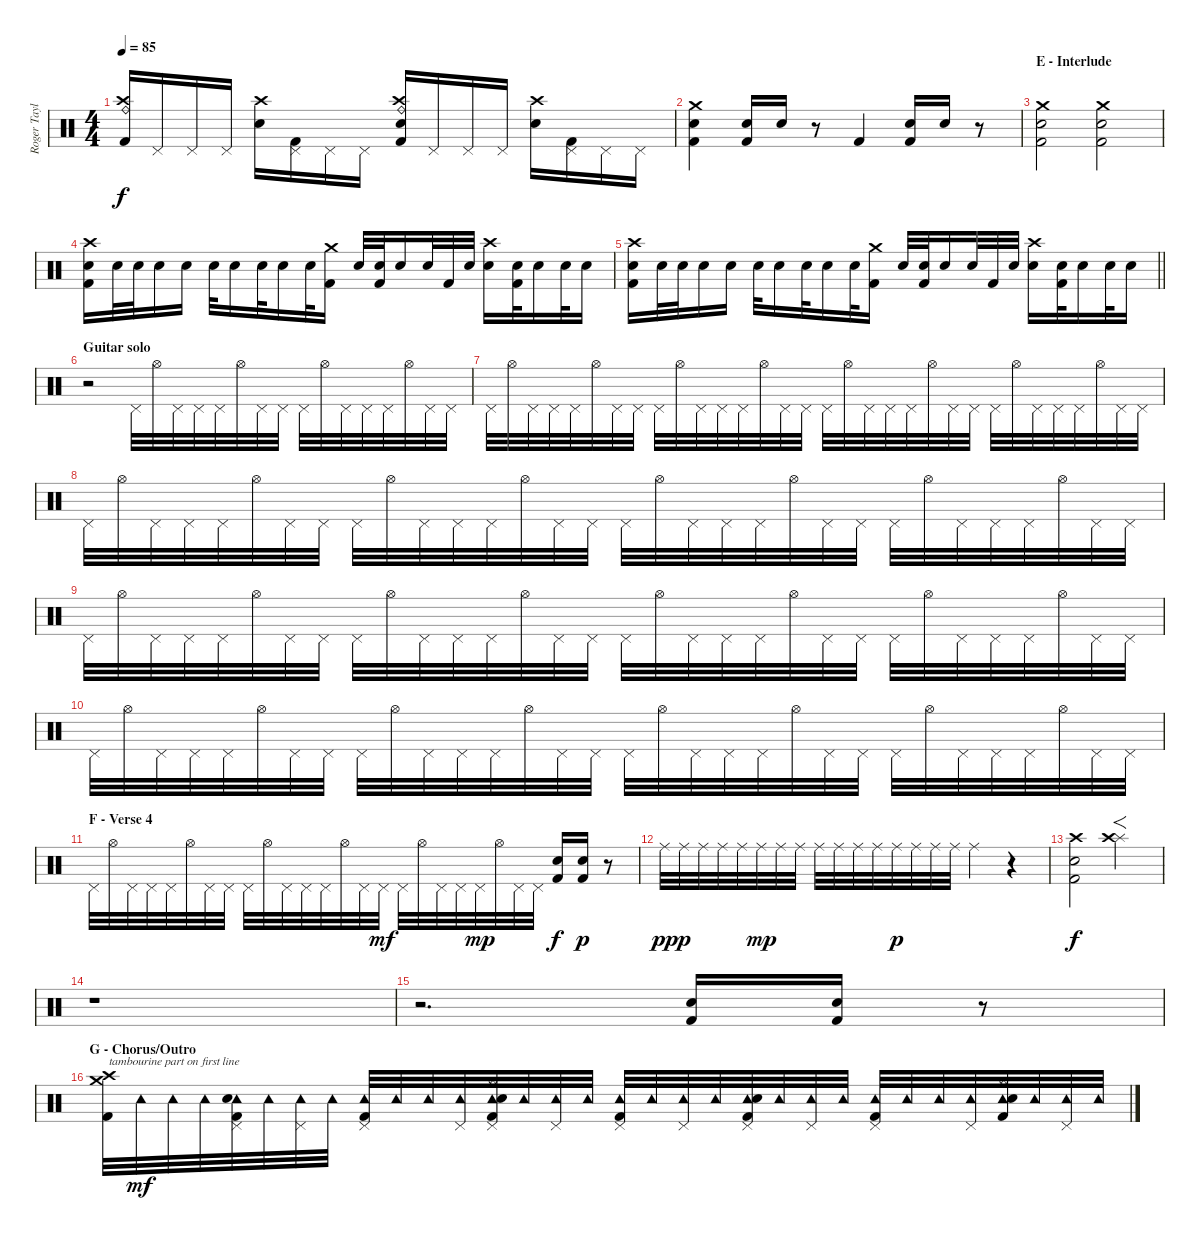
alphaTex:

\track ("Roger Taylor - Drums" "Roger Tayl") {instrument percussion}
\staff {score}
\articulation defaults
\ts (4 4)
\tempo 85
\clef neutral
\ks c
("Ride (bell)" "Crash high (hit)" "Kick (hit) 2").16{dy f} "Pedal Hi-Hat (hit)".16 "Pedal Hi-Hat (hit)".16 "Pedal Hi-Hat (hit)".16 ("Crash high (hit)" "Electric Snare (hit)").16 ("Pedal Hi-Hat (hit)" "Kick (hit) 2").16 "Pedal Hi-Hat (hit)".16 "Pedal Hi-Hat (hit)".16 ("Ride (bell)" "Crash high (hit)" "Electric Snare (hit)" "Kick (hit) 2").16 "Pedal Hi-Hat (hit)".16 "Pedal Hi-Hat (hit)".16 "Pedal Hi-Hat (hit)".16 ("Crash high (hit)" "Electric Snare (hit)").16 ("Pedal Hi-Hat (hit)" "Kick (hit) 2").16 "Pedal Hi-Hat (hit)".16 "Pedal Hi-Hat (hit)".16 |
("Crash medium (hit)" "Electric Snare (hit)" "Kick (hit) 2").4 ("Electric Snare (hit)" "Kick (hit) 2").16 "Electric Snare (hit)".16 r.8 "Kick (hit) 2".4 ("Electric Snare (hit)" "Kick (hit) 2").16 "Electric Snare (hit)".16 r.8 |
\section ("" "E - Interlude")
("Crash medium (hit)" "Electric Snare (hit)" "Kick (hit) 2").2 ("Crash medium (hit)" "Electric Snare (hit)" "Kick (hit) 2").2 |
("Crash high (hit)" "Electric Snare (hit)" "Kick (hit) 2").16 "Electric Snare (hit)".32 "Electric Snare (hit)".32 "Electric Snare (hit)".16 "Electric Snare (hit)".16 "Electric Snare (hit)".32 "Electric Snare (hit)".16 "Electric Snare (hit)".32 "Electric Snare (hit)".16 "Electric Snare (hit)".32 ("Crash medium (hit)" "Kick (hit) 2").16 "Electric Snare (hit)".32 ("Electric Snare (hit)" "Kick (hit) 2").32 "Electric Snare (hit)".16 "Electric Snare (hit)".32 "Kick (hit) 2".32 "Electric Snare (hit)".32 ("Crash high (hit)" "Electric Snare (hit)").16 ("Electric Snare (hit)" "Kick (hit) 2").32 "Electric Snare (hit)".16 "Electric Snare (hit)".32 "Electric Snare (hit)".16 |
\barLineRight lightlight
("Crash high (hit)" "Electric Snare (hit)" "Kick (hit) 2").16 "Electric Snare (hit)".32 "Electric Snare (hit)".32 "Electric Snare (hit)".16 "Electric Snare (hit)".16 "Electric Snare (hit)".32 "Electric Snare (hit)".16 "Electric Snare (hit)".32 "Electric Snare (hit)".16 "Electric Snare (hit)".32 ("Crash medium (hit)" "Kick (hit) 2").16 "Electric Snare (hit)".32 ("Electric Snare (hit)" "Kick (hit) 2").32 "Electric Snare (hit)".16 "Electric Snare (hit)".32 "Kick (hit) 2".32 "Electric Snare (hit)".32 ("Crash high (hit)" "Electric Snare (hit)").16 ("Electric Snare (hit)" "Kick (hit) 2").32 "Electric Snare (hit)".16 "Electric Snare (hit)".32 "Electric Snare (hit)".16 |
\section ("" "Guitar solo")
r.2 "Pedal Hi-Hat (hit)".32 "Hi-Hat (open)".32 "Pedal Hi-Hat (hit)".32 "Pedal Hi-Hat (hit)".32 "Pedal Hi-Hat (hit)".32 "Hi-Hat (open)".32 "Pedal Hi-Hat (hit)".32 "Pedal Hi-Hat (hit)".32 "Pedal Hi-Hat (hit)".32 "Hi-Hat (open)".32 "Pedal Hi-Hat (hit)".32 "Pedal Hi-Hat (hit)".32 "Pedal Hi-Hat (hit)".32 "Hi-Hat (open)".32 "Pedal Hi-Hat (hit)".32 "Pedal Hi-Hat (hit)".32 |
"Pedal Hi-Hat (hit)".32 "Hi-Hat (open)".32 "Pedal Hi-Hat (hit)".32 "Pedal Hi-Hat (hit)".32 "Pedal Hi-Hat (hit)".32 "Hi-Hat (open)".32 "Pedal Hi-Hat (hit)".32 "Pedal Hi-Hat (hit)".32 "Pedal Hi-Hat (hit)".32 "Hi-Hat (open)".32 "Pedal Hi-Hat (hit)".32 "Pedal Hi-Hat (hit)".32 "Pedal Hi-Hat (hit)".32 "Hi-Hat (open)".32 "Pedal Hi-Hat (hit)".32 "Pedal Hi-Hat (hit)".32 "Pedal Hi-Hat (hit)".32 "Hi-Hat (open)".32 "Pedal Hi-Hat (hit)".32 "Pedal Hi-Hat (hit)".32 "Pedal Hi-Hat (hit)".32 "Hi-Hat (open)".32 "Pedal Hi-Hat (hit)".32 "Pedal Hi-Hat (hit)".32 "Pedal Hi-Hat (hit)".32 "Hi-Hat (open)".32 "Pedal Hi-Hat (hit)".32 "Pedal Hi-Hat (hit)".32 "Pedal Hi-Hat (hit)".32 "Hi-Hat (open)".32 "Pedal Hi-Hat (hit)".32 "Pedal Hi-Hat (hit)".32 |
"Pedal Hi-Hat (hit)".32 "Hi-Hat (open)".32 "Pedal Hi-Hat (hit)".32 "Pedal Hi-Hat (hit)".32 "Pedal Hi-Hat (hit)".32 "Hi-Hat (open)".32 "Pedal Hi-Hat (hit)".32 "Pedal Hi-Hat (hit)".32 "Pedal Hi-Hat (hit)".32 "Hi-Hat (open)".32 "Pedal Hi-Hat (hit)".32 "Pedal Hi-Hat (hit)".32 "Pedal Hi-Hat (hit)".32 "Hi-Hat (open)".32 "Pedal Hi-Hat (hit)".32 "Pedal Hi-Hat (hit)".32 "Pedal Hi-Hat (hit)".32 "Hi-Hat (open)".32 "Pedal Hi-Hat (hit)".32 "Pedal Hi-Hat (hit)".32 "Pedal Hi-Hat (hit)".32 "Hi-Hat (open)".32 "Pedal Hi-Hat (hit)".32 "Pedal Hi-Hat (hit)".32 "Pedal Hi-Hat (hit)".32 "Hi-Hat (open)".32 "Pedal Hi-Hat (hit)".32 "Pedal Hi-Hat (hit)".32 "Pedal Hi-Hat (hit)".32 "Hi-Hat (open)".32 "Pedal Hi-Hat (hit)".32 "Pedal Hi-Hat (hit)".32 |
"Pedal Hi-Hat (hit)".32 "Hi-Hat (open)".32 "Pedal Hi-Hat (hit)".32 "Pedal Hi-Hat (hit)".32 "Pedal Hi-Hat (hit)".32 "Hi-Hat (open)".32 "Pedal Hi-Hat (hit)".32 "Pedal Hi-Hat (hit)".32 "Pedal Hi-Hat (hit)".32 "Hi-Hat (open)".32 "Pedal Hi-Hat (hit)".32 "Pedal Hi-Hat (hit)".32 "Pedal Hi-Hat (hit)".32 "Hi-Hat (open)".32 "Pedal Hi-Hat (hit)".32 "Pedal Hi-Hat (hit)".32 "Pedal Hi-Hat (hit)".32 "Hi-Hat (open)".32 "Pedal Hi-Hat (hit)".32 "Pedal Hi-Hat (hit)".32 "Pedal Hi-Hat (hit)".32 "Hi-Hat (open)".32 "Pedal Hi-Hat (hit)".32 "Pedal Hi-Hat (hit)".32 "Pedal Hi-Hat (hit)".32 "Hi-Hat (open)".32 "Pedal Hi-Hat (hit)".32 "Pedal Hi-Hat (hit)".32 "Pedal Hi-Hat (hit)".32 "Hi-Hat (open)".32 "Pedal Hi-Hat (hit)".32 "Pedal Hi-Hat (hit)".32 |
"Pedal Hi-Hat (hit)".32 "Hi-Hat (open)".32 "Pedal Hi-Hat (hit)".32 "Pedal Hi-Hat (hit)".32 "Pedal Hi-Hat (hit)".32 "Hi-Hat (open)".32 "Pedal Hi-Hat (hit)".32 "Pedal Hi-Hat (hit)".32 "Pedal Hi-Hat (hit)".32 "Hi-Hat (open)".32 "Pedal Hi-Hat (hit)".32 "Pedal Hi-Hat (hit)".32 "Pedal Hi-Hat (hit)".32 "Hi-Hat (open)".32 "Pedal Hi-Hat (hit)".32 "Pedal Hi-Hat (hit)".32 "Pedal Hi-Hat (hit)".32 "Hi-Hat (open)".32 "Pedal Hi-Hat (hit)".32 "Pedal Hi-Hat (hit)".32 "Pedal Hi-Hat (hit)".32 "Hi-Hat (open)".32 "Pedal Hi-Hat (hit)".32 "Pedal Hi-Hat (hit)".32 "Pedal Hi-Hat (hit)".32 "Hi-Hat (open)".32 "Pedal Hi-Hat (hit)".32 "Pedal Hi-Hat (hit)".32 "Pedal Hi-Hat (hit)".32 "Hi-Hat (open)".32 "Pedal Hi-Hat (hit)".32 "Pedal Hi-Hat (hit)".32 |
\section ("" "F - Verse 4")
"Pedal Hi-Hat (hit)".32 "Hi-Hat (open)".32 "Pedal Hi-Hat (hit)".32 "Pedal Hi-Hat (hit)".32 "Pedal Hi-Hat (hit)".32 "Hi-Hat (open)".32 "Pedal Hi-Hat (hit)".32 "Pedal Hi-Hat (hit)".32 "Pedal Hi-Hat (hit)".32 "Hi-Hat (open)".32 "Pedal Hi-Hat (hit)".32 "Pedal Hi-Hat (hit)".32 "Pedal Hi-Hat (hit)".32 "Hi-Hat (open)".32 "Pedal Hi-Hat (hit)".32 "Pedal Hi-Hat (hit)".32{dy mf} "Pedal Hi-Hat (hit)".32 "Hi-Hat (open)".32 "Pedal Hi-Hat (hit)".32 "Pedal Hi-Hat (hit)".32 "Pedal Hi-Hat (hit)".32{dy mp} "Hi-Hat (open)".32 "Pedal Hi-Hat (hit)".32 "Pedal Hi-Hat (hit)".32 ("Electric Snare (hit)" "Kick (hit) 2").16{dy f} ("Electric Snare (hit)" "Kick (hit) 2").16{dy p} r.8 |
"Ride (middle)".32{dy pp} "Ride (middle)".32{dy p} "Ride (middle)".32 "Ride (middle)".32 "Ride (middle)".32 "Ride (middle)".32{dy mp} "Ride (middle)".32 "Ride (middle)".32 "Ride (middle)".32 "Ride (middle)".32 "Ride (middle)".32 "Ride (middle)".32 "Ride (middle)".32{dy p} "Ride (middle)".32 "Ride (middle)".32 "Ride (middle)".32 "Ride (middle)".4 r.4 |
("Kick (hit) 2" "Crash high (hit)" "Electric Snare (hit)").2{dy f} ("Splash (hit)"{tr (55 64)} "Crash high (hit)"{tr (49 64)}).2{f} |
r.1 |
r.2{d} ("Electric Snare (hit)" "Kick (hit) 2").16 ("Electric Snare (hit)" "Kick (hit) 2").16 r.8 |
\section ("" "G - Chorus/Outro")
("Crash medium (hit)" "Crash high (hit)" "Kick (hit) 2").32{txt "tambourine part on first line"} "Tambourine (hit)".32{dy mf} "Tambourine (hit)".32 "Tambourine (hit)".32 ("Tambourine (hit)" "Pedal Hi-Hat (hit)" "Electric Snare (hit)" "Kick (hit) 2").32 "Tambourine (hit)".32 ("Tambourine (hit)" "Pedal Hi-Hat (hit)").32 "Tambourine (hit)".32 ("Tambourine (hit)" "Pedal Hi-Hat (hit)" "Kick (hit) 2").32 "Tambourine (hit)".32 "Tambourine (hit)".32 ("Tambourine (hit)" "Pedal Hi-Hat (hit)").32 ("Tambourine (hit)" "Pedal Hi-Hat (hit)" "Electric Snare (hit)" "Hi-Hat (open)" "Kick (hit) 2").32 "Tambourine (hit)".32 ("Tambourine (hit)" "Pedal Hi-Hat (hit)").32 "Tambourine (hit)".32 ("Tambourine (hit)" "Pedal Hi-Hat (hit)" "Kick (hit) 2").32 "Tambourine (hit)".32 ("Tambourine (hit)" "Pedal Hi-Hat (hit)").32 "Tambourine (hit)".32 ("Tambourine (hit)" "Pedal Hi-Hat (hit)" "Electric Snare (hit)" "Kick (hit) 2").32 "Tambourine (hit)".32 ("Tambourine (hit)" "Pedal Hi-Hat (hit)").32 "Tambourine (hit)".32 ("Tambourine (hit)" "Pedal Hi-Hat (hit)" "Kick (hit) 2").32 "Tambourine (hit)".32 "Tambourine (hit)".32 ("Tambourine (hit)" "Pedal Hi-Hat (hit)").32 ("Tambourine (hit)" "Electric Snare (hit)" "Hi-Hat (open)" "Kick (hit) 2").32 "Tambourine (hit)".32 ("Tambourine (hit)" "Pedal Hi-Hat (hit)").32 "Tambourine (hit)".32
